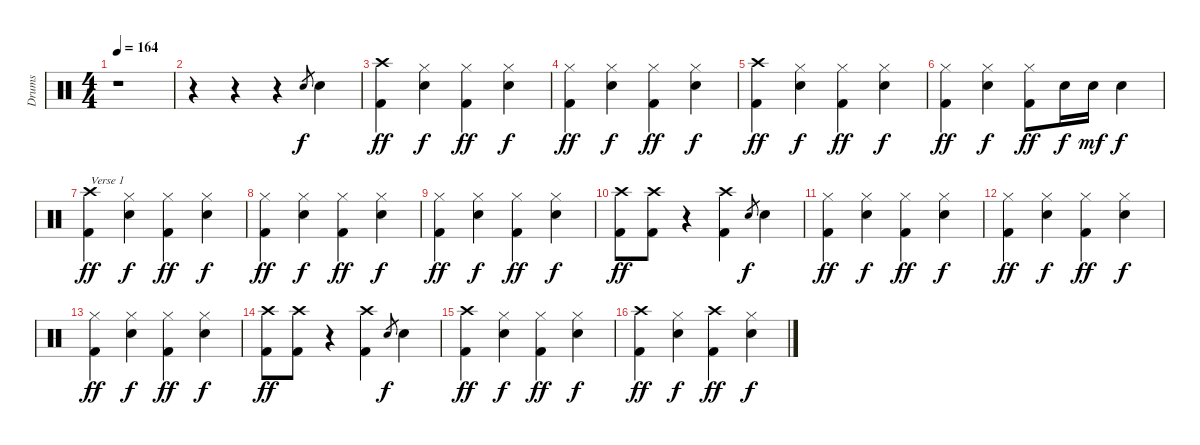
\track ("Drums" "Drums") {instrument percussion}
\staff {score}
\articulation defaults
\ts (4 4)
\tempo 164
\clef neutral
\ks c
r.1{dy f} |
r.4 r.4 r.4 "Snare (hit) 2".8{gr} "Snare (hit) 2".4 |
("Crash high (hit)" "Kick (hit) 2").4{dy ff} ("Hi-Hat (closed)" "Snare (hit) 2").4{dy f} ("Hi-Hat (closed)" "Kick (hit) 2").4{dy ff} ("Hi-Hat (closed)" "Snare (hit) 2").4{dy f} |
("Hi-Hat (closed)" "Kick (hit) 2").4{dy ff} ("Hi-Hat (closed)" "Snare (hit) 2").4{dy f} ("Hi-Hat (closed)" "Kick (hit) 2").4{dy ff} ("Hi-Hat (closed)" "Snare (hit) 2").4{dy f} |
("Crash high (hit)" "Kick (hit) 2").4{dy ff} ("Hi-Hat (closed)" "Snare (hit) 2").4{dy f} ("Hi-Hat (closed)" "Kick (hit) 2").4{dy ff} ("Hi-Hat (closed)" "Snare (hit) 2").4{dy f} |
("Hi-Hat (closed)" "Kick (hit) 2").4{dy ff} ("Hi-Hat (closed)" "Snare (hit) 2").4{dy f} ("Hi-Hat (closed)" "Kick (hit) 2").8{dy ff} "Snare (hit) 2".16{dy f} "Snare (hit) 2".16{dy mf} "Snare (hit) 2".4{dy f} |
("Crash high (hit)" "Kick (hit) 2").4{txt "Verse 1" dy ff} ("Hi-Hat (closed)" "Snare (hit) 2").4{dy f} ("Hi-Hat (closed)" "Kick (hit) 2").4{dy ff} ("Hi-Hat (closed)" "Snare (hit) 2").4{dy f} |
("Hi-Hat (closed)" "Kick (hit) 2").4{dy ff} ("Hi-Hat (closed)" "Snare (hit) 2").4{dy f} ("Hi-Hat (closed)" "Kick (hit) 2").4{dy ff} ("Hi-Hat (closed)" "Snare (hit) 2").4{dy f} |
("Hi-Hat (closed)" "Kick (hit) 2").4{dy ff} ("Hi-Hat (closed)" "Snare (hit) 2").4{dy f} ("Hi-Hat (closed)" "Kick (hit) 2").4{dy ff} ("Hi-Hat (closed)" "Snare (hit) 2").4{dy f} |
("Crash high (hit)" "Kick (hit) 2").8{dy ff} ("Crash high (hit)" "Kick (hit) 2").8 r.4 ("Crash high (hit)" "Kick (hit) 2").4 "Snare (hit) 2".8{gr dy f} "Snare (hit) 2".4 |
("Hi-Hat (closed)" "Kick (hit) 2").4{dy ff} ("Hi-Hat (closed)" "Snare (hit) 2").4{dy f} ("Hi-Hat (closed)" "Kick (hit) 2").4{dy ff} ("Hi-Hat (closed)" "Snare (hit) 2").4{dy f} |
("Hi-Hat (closed)" "Kick (hit) 2").4{dy ff} ("Hi-Hat (closed)" "Snare (hit) 2").4{dy f} ("Hi-Hat (closed)" "Kick (hit) 2").4{dy ff} ("Hi-Hat (closed)" "Snare (hit) 2").4{dy f} |
("Hi-Hat (closed)" "Kick (hit) 2").4{dy ff} ("Hi-Hat (closed)" "Snare (hit) 2").4{dy f} ("Hi-Hat (closed)" "Kick (hit) 2").4{dy ff} ("Hi-Hat (closed)" "Snare (hit) 2").4{dy f} |
("Crash high (hit)" "Kick (hit) 2").8{dy ff} ("Crash high (hit)" "Kick (hit) 2").8 r.4 ("Crash high (hit)" "Kick (hit) 2").4 "Snare (hit) 2".8{gr dy f} "Snare (hit) 2".4 |
("Crash high (hit)" "Kick (hit) 2").4{dy ff} ("Hi-Hat (closed)" "Snare (hit) 2").4{dy f} ("Hi-Hat (closed)" "Kick (hit) 2").4{dy ff} ("Hi-Hat (closed)" "Snare (hit) 2").4{dy f} |
("Crash high (hit)" "Kick (hit) 2").4{dy ff} ("Hi-Hat (closed)" "Snare (hit) 2").4{dy f} ("Crash high (hit)" "Kick (hit) 2").4{dy ff} ("Hi-Hat (closed)" "Snare (hit) 2").4{dy f}
